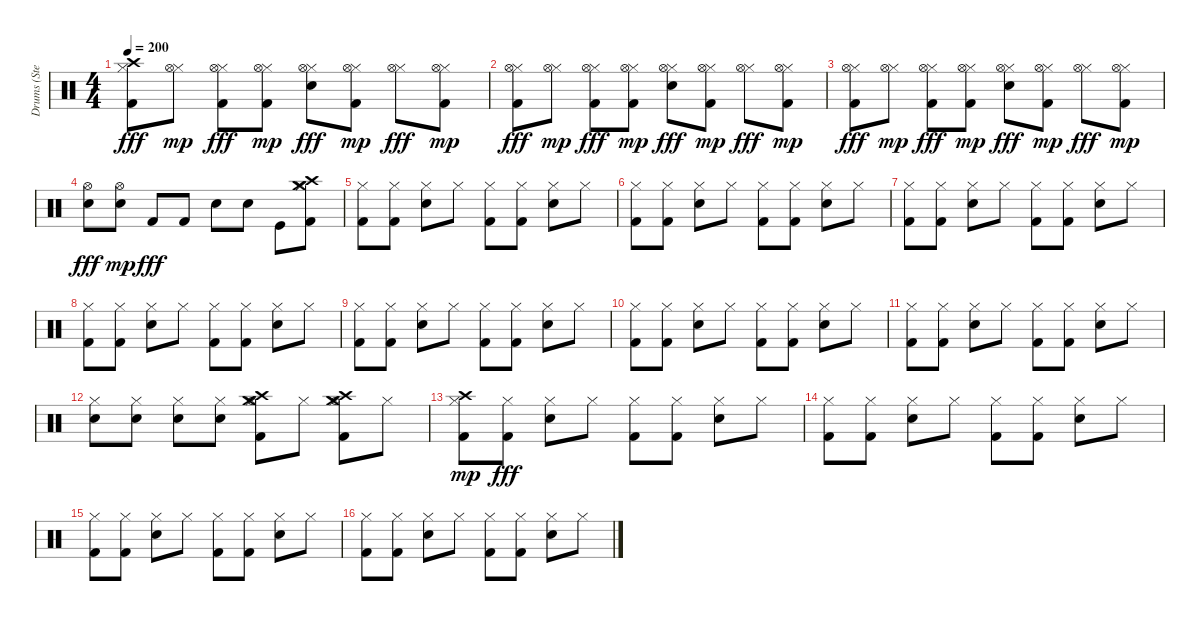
\track ("Drums (Stevo32)" "Drums (Ste") {instrument percussion}
\staff {score}
\articulation defaults
\ts (4 4)
\tempo 200
\clef neutral
\ks c
("Kick (hit) 2" "Hi-Hat (closed)" "Crash high (hit)").8{dy fff} ("Hi-Hat (closed)" "Hi-Hat (open)").8{dy mp} ("Kick (hit) 2" "Hi-Hat (closed)" "Hi-Hat (open)").8{dy fff} ("Kick (hit) 2" "Hi-Hat (closed)" "Hi-Hat (open)").8{dy mp} ("Electric Snare (hit)" "Hi-Hat (closed)" "Hi-Hat (open)").8{dy fff} ("Kick (hit) 2" "Hi-Hat (closed)" "Hi-Hat (open)").8{dy mp} ("Hi-Hat (closed)" "Hi-Hat (open)").8{dy fff} ("Kick (hit) 2" "Hi-Hat (closed)" "Hi-Hat (open)").8{dy mp} |
("Kick (hit) 2" "Hi-Hat (closed)" "Hi-Hat (open)").8{dy fff} ("Hi-Hat (closed)" "Hi-Hat (open)").8{dy mp} ("Kick (hit) 2" "Hi-Hat (closed)" "Hi-Hat (open)").8{dy fff} ("Kick (hit) 2" "Hi-Hat (closed)" "Hi-Hat (open)").8{dy mp} ("Electric Snare (hit)" "Hi-Hat (closed)" "Hi-Hat (open)").8{dy fff} ("Kick (hit) 2" "Hi-Hat (closed)" "Hi-Hat (open)").8{dy mp} ("Hi-Hat (closed)" "Hi-Hat (open)").8{dy fff} ("Kick (hit) 2" "Hi-Hat (closed)" "Hi-Hat (open)").8{dy mp} |
("Kick (hit) 2" "Hi-Hat (closed)" "Hi-Hat (open)").8{dy fff} ("Hi-Hat (closed)" "Hi-Hat (open)").8{dy mp} ("Kick (hit) 2" "Hi-Hat (closed)" "Hi-Hat (open)").8{dy fff} ("Kick (hit) 2" "Hi-Hat (closed)" "Hi-Hat (open)").8{dy mp} ("Electric Snare (hit)" "Hi-Hat (closed)" "Hi-Hat (open)").8{dy fff} ("Kick (hit) 2" "Hi-Hat (closed)" "Hi-Hat (open)").8{dy mp} ("Hi-Hat (closed)" "Hi-Hat (open)").8{dy fff} ("Kick (hit) 2" "Hi-Hat (closed)" "Hi-Hat (open)").8{dy mp} |
("Electric Snare (hit)" "Hi-Hat (open)").8{dy fff} ("Electric Snare (hit)" "Hi-Hat (open)").8{dy mp} "Kick (hit) 2".8{dy fff} "Kick (hit) 2".8 "Electric Snare (hit)".8 "Electric Snare (hit)".8 "Kick (hit)".8 ("Kick (hit) 2" "Hi-Hat (closed)" "Hi-Hat (closed)" "Crash high (hit)" "Crash medium (hit)").8 |
("Kick (hit) 2" "Hi-Hat (closed)").8 ("Kick (hit) 2" "Hi-Hat (closed)").8 ("Electric Snare (hit)" "Hi-Hat (closed)").8 "Hi-Hat (closed)".8 ("Kick (hit) 2" "Hi-Hat (closed)").8 ("Kick (hit) 2" "Hi-Hat (closed)").8 ("Electric Snare (hit)" "Hi-Hat (closed)").8 "Hi-Hat (closed)".8 |
("Kick (hit) 2" "Hi-Hat (closed)").8 ("Kick (hit) 2" "Hi-Hat (closed)").8 ("Electric Snare (hit)" "Hi-Hat (closed)").8 "Hi-Hat (closed)".8 ("Kick (hit) 2" "Hi-Hat (closed)").8 ("Kick (hit) 2" "Hi-Hat (closed)").8 ("Electric Snare (hit)" "Hi-Hat (closed)").8 "Hi-Hat (closed)".8 |
("Kick (hit) 2" "Hi-Hat (closed)").8 ("Kick (hit) 2" "Hi-Hat (closed)").8 ("Electric Snare (hit)" "Hi-Hat (closed)").8 "Hi-Hat (closed)".8 ("Kick (hit) 2" "Hi-Hat (closed)").8 ("Kick (hit) 2" "Hi-Hat (closed)").8 ("Electric Snare (hit)" "Hi-Hat (closed)").8 "Hi-Hat (closed)".8 |
("Kick (hit) 2" "Hi-Hat (closed)").8 ("Kick (hit) 2" "Hi-Hat (closed)").8 ("Electric Snare (hit)" "Hi-Hat (closed)").8 "Hi-Hat (closed)".8 ("Kick (hit) 2" "Hi-Hat (closed)").8 ("Kick (hit) 2" "Hi-Hat (closed)").8 ("Electric Snare (hit)" "Hi-Hat (closed)").8 "Hi-Hat (closed)".8 |
("Kick (hit) 2" "Hi-Hat (closed)").8 ("Kick (hit) 2" "Hi-Hat (closed)").8 ("Electric Snare (hit)" "Hi-Hat (closed)").8 "Hi-Hat (closed)".8 ("Kick (hit) 2" "Hi-Hat (closed)").8 ("Kick (hit) 2" "Hi-Hat (closed)").8 ("Electric Snare (hit)" "Hi-Hat (closed)").8 "Hi-Hat (closed)".8 |
("Kick (hit) 2" "Hi-Hat (closed)").8 ("Kick (hit) 2" "Hi-Hat (closed)").8 ("Electric Snare (hit)" "Hi-Hat (closed)").8 "Hi-Hat (closed)".8 ("Kick (hit) 2" "Hi-Hat (closed)").8 ("Kick (hit) 2" "Hi-Hat (closed)").8 ("Electric Snare (hit)" "Hi-Hat (closed)").8 "Hi-Hat (closed)".8 |
("Kick (hit) 2" "Hi-Hat (closed)").8 ("Kick (hit) 2" "Hi-Hat (closed)").8 ("Electric Snare (hit)" "Hi-Hat (closed)").8 "Hi-Hat (closed)".8 ("Kick (hit) 2" "Hi-Hat (closed)").8 ("Kick (hit) 2" "Hi-Hat (closed)").8 ("Electric Snare (hit)" "Hi-Hat (closed)").8 "Hi-Hat (closed)".8 |
("Electric Snare (hit)" "Hi-Hat (closed)").8 ("Electric Snare (hit)" "Hi-Hat (closed)").8 ("Electric Snare (hit)" "Hi-Hat (closed)").8 ("Electric Snare (hit)" "Hi-Hat (closed)").8 ("Kick (hit) 2" "Hi-Hat (closed)" "Hi-Hat (open)" "Crash high (hit)" "Crash medium (hit)").8 "Hi-Hat (closed)".8 ("Kick (hit) 2" "Hi-Hat (closed)" "Hi-Hat (open)" "Crash high (hit)" "Crash medium (hit)").8 "Hi-Hat (closed)".8 |
("Kick (hit) 2" "Hi-Hat (closed)" "Crash high (hit)").8{dy mp} ("Kick (hit) 2" "Hi-Hat (closed)").8{dy fff} ("Electric Snare (hit)" "Hi-Hat (closed)").8 "Hi-Hat (closed)".8 ("Kick (hit) 2" "Hi-Hat (closed)").8 ("Kick (hit) 2" "Hi-Hat (closed)").8 ("Electric Snare (hit)" "Hi-Hat (closed)").8 "Hi-Hat (closed)".8 |
("Kick (hit) 2" "Hi-Hat (closed)").8 ("Kick (hit) 2" "Hi-Hat (closed)").8 ("Electric Snare (hit)" "Hi-Hat (closed)").8 "Hi-Hat (closed)".8 ("Kick (hit) 2" "Hi-Hat (closed)").8 ("Kick (hit) 2" "Hi-Hat (closed)").8 ("Electric Snare (hit)" "Hi-Hat (closed)").8 "Hi-Hat (closed)".8 |
("Kick (hit) 2" "Hi-Hat (closed)").8 ("Kick (hit) 2" "Hi-Hat (closed)").8 ("Electric Snare (hit)" "Hi-Hat (closed)").8 "Hi-Hat (closed)".8 ("Kick (hit) 2" "Hi-Hat (closed)").8 ("Kick (hit) 2" "Hi-Hat (closed)").8 ("Electric Snare (hit)" "Hi-Hat (closed)").8 "Hi-Hat (closed)".8 |
("Kick (hit) 2" "Hi-Hat (closed)").8 ("Kick (hit) 2" "Hi-Hat (closed)").8 ("Electric Snare (hit)" "Hi-Hat (closed)").8 "Hi-Hat (closed)".8 ("Kick (hit) 2" "Hi-Hat (closed)").8 ("Kick (hit) 2" "Hi-Hat (closed)").8 ("Electric Snare (hit)" "Hi-Hat (closed)").8 "Hi-Hat (closed)".8
